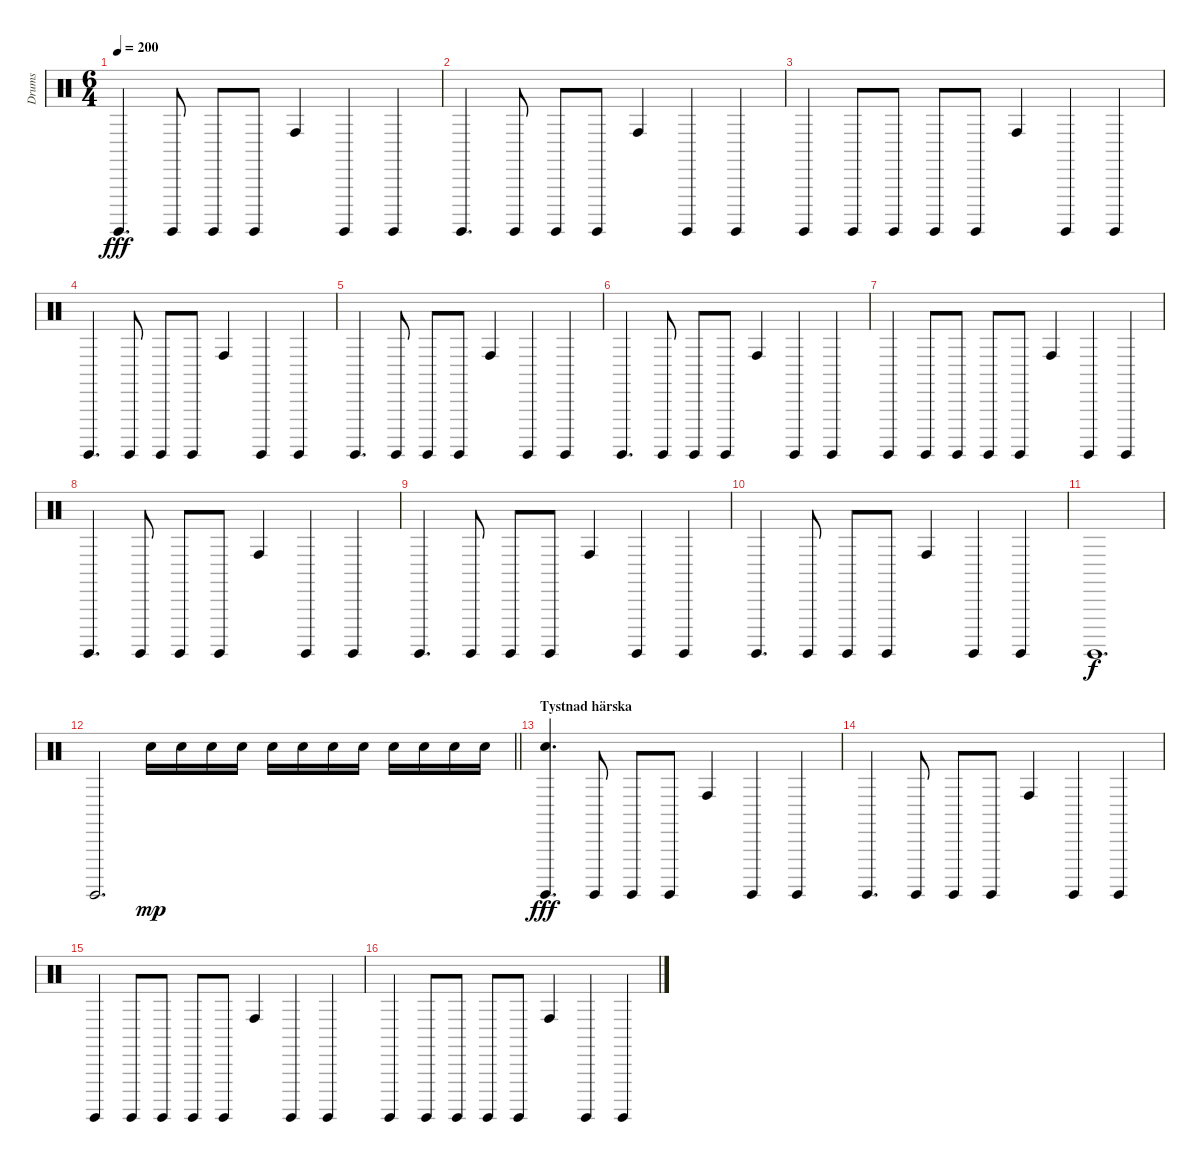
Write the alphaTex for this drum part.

\track ("Drums" "Drums") {instrument percussion}
\staff {score}
\articulation defaults
\ts (6 4)
\tempo 200
\clef neutral
\ks c "Surdo (hit)".4{d dy fff} "Surdo (hit)".8 "Surdo (hit)".8 "Surdo (hit)".8 "Conga high (hit)".4 "Surdo (hit)".4 "Surdo (hit)".4
|
"Surdo (hit)".4{d} "Surdo (hit)".8 "Surdo (hit)".8 "Surdo (hit)".8 "Conga high (hit)".4 "Surdo (hit)".4 "Surdo (hit)".4 |
"Surdo (hit)".4 "Surdo (hit)".8 "Surdo (hit)".8 "Surdo (hit)".8 "Surdo (hit)".8 "Conga high (hit)".4 "Surdo (hit)".4 "Surdo (hit)".4 |
"Surdo (hit)".4{d} "Surdo (hit)".8 "Surdo (hit)".8 "Surdo (hit)".8 "Conga high (hit)".4 "Surdo (hit)".4 "Surdo (hit)".4 |
"Surdo (hit)".4{d} "Surdo (hit)".8 "Surdo (hit)".8 "Surdo (hit)".8 "Conga high (hit)".4 "Surdo (hit)".4 "Surdo (hit)".4 |
"Surdo (hit)".4{d} "Surdo (hit)".8 "Surdo (hit)".8 "Surdo (hit)".8 "Conga high (hit)".4 "Surdo (hit)".4 "Surdo (hit)".4 |
"Surdo (hit)".4 "Surdo (hit)".8 "Surdo (hit)".8 "Surdo (hit)".8 "Surdo (hit)".8 "Conga high (hit)".4 "Surdo (hit)".4 "Surdo (hit)".4 |
"Surdo (hit)".4{d} "Surdo (hit)".8 "Surdo (hit)".8 "Surdo (hit)".8 "Conga high (hit)".4 "Surdo (hit)".4 "Surdo (hit)".4 |
"Surdo (hit)".4{d} "Surdo (hit)".8 "Surdo (hit)".8 "Surdo (hit)".8 "Conga high (hit)".4 "Surdo (hit)".4 "Surdo (hit)".4 |
"Surdo (hit)".4{d} "Surdo (hit)".8 "Surdo (hit)".8 "Surdo (hit)".8 "Conga high (hit)".4 "Surdo (hit)".4 "Surdo (hit)".4 |
"Surdo (hit)".1{d dy f} |
\barLineRight lightlight "Surdo (hit)".2{d} "Electric Snare (hit)".16{dy mp} "Electric Snare (hit)".16 "Electric Snare (hit)".16 "Electric Snare (hit)".16 "Electric Snare (hit)".16 "Electric Snare (hit)".16 "Electric Snare (hit)".16 "Electric Snare (hit)".16 "Electric Snare (hit)".16 "Electric Snare (hit)".16 "Electric Snare (hit)".16 "Electric Snare (hit)".16
|
\section ("" "Tystnad härska")
("Electric Snare (hit)" "Surdo (hit)").4{d dy fff volume 16} "Surdo (hit)".8 "Surdo (hit)".8 "Surdo (hit)".8 "Conga high (hit)".4 "Surdo (hit)".4 "Surdo (hit)".4 |
"Surdo (hit)".4{d} "Surdo (hit)".8 "Surdo (hit)".8 "Surdo (hit)".8 "Conga high (hit)".4 "Surdo (hit)".4 "Surdo (hit)".4 |
"Surdo (hit)".4 "Surdo (hit)".8 "Surdo (hit)".8 "Surdo (hit)".8 "Surdo (hit)".8 "Conga high (hit)".4 "Surdo (hit)".4 "Surdo (hit)".4 |
"Surdo (hit)".4 "Surdo (hit)".8 "Surdo (hit)".8 "Surdo (hit)".8 "Surdo (hit)".8 "Conga high (hit)".4 "Surdo (hit)".4 "Surdo (hit)".4
